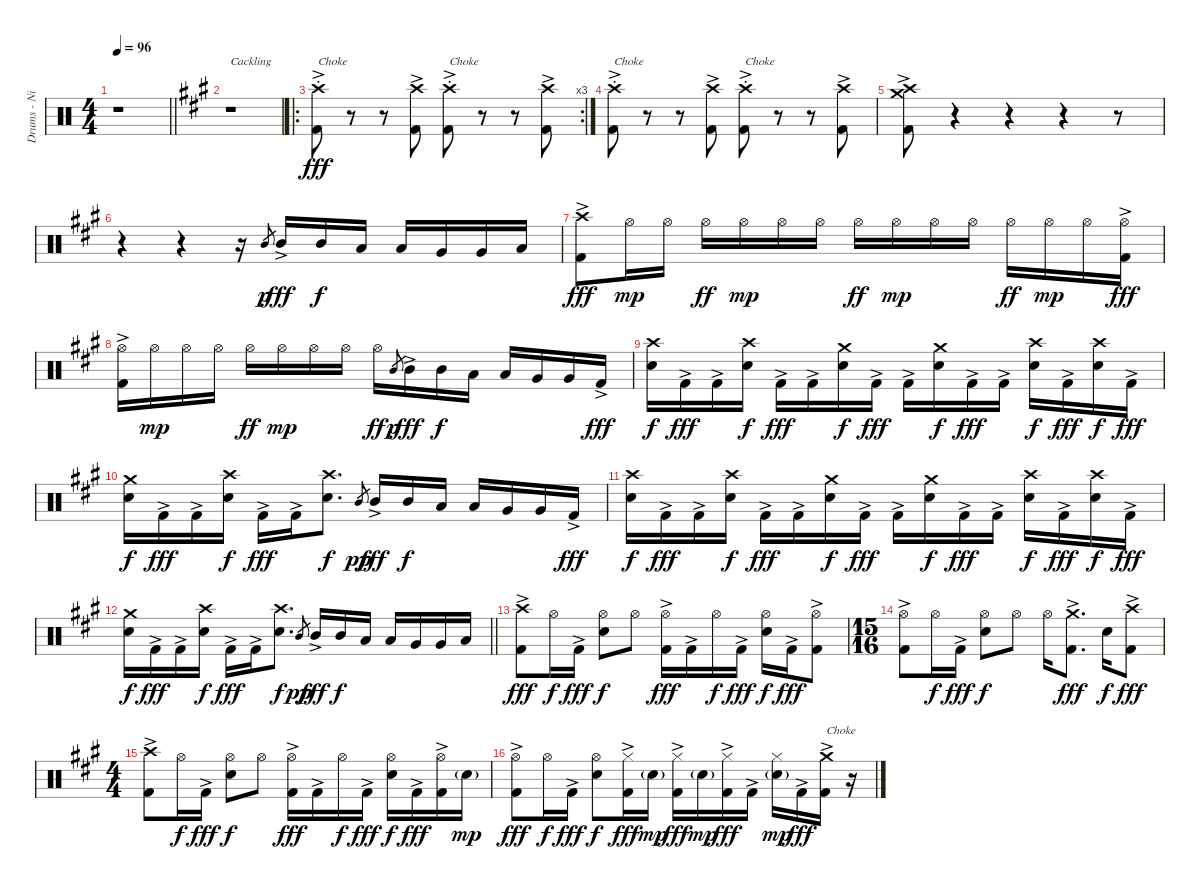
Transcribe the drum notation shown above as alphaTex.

\track ("Drums - Nick Menza" "Drums - Ni") {instrument percussion}
\staff {score}
\articulation defaults
\ts (4 4)
\tempo 96
\clef neutral
\barLineRight lightlight
\ks c
r.1{dy fff} |
\ks f#minor
r.1{txt "Cackling"} |
\ro
\rc 3
("Crash high (hit)"{st} "Kick (hit) 2"{ac}).8{txt "Choke "} r.8 r.8 ("Crash high (hit)" "Kick (hit) 2"{ac}).8 ("Crash high (hit)"{st} "Kick (hit) 2"{ac}).8{txt "Choke"} r.8 r.8 ("Crash high (hit)" "Kick (hit) 2"{ac}).8 |
("Crash high (hit)"{st} "Kick (hit) 2"{ac}).8{txt "Choke"} r.8 r.8 ("Crash high (hit)" "Kick (hit) 2"{ac}).8 ("Crash high (hit)"{st} "Kick (hit) 2"{ac}).8{txt "Choke"} r.8 r.8 ("Crash high (hit)" "Kick (hit) 2"{ac}).8 |
("Crash high (hit)" "Crash medium (hit)" "Kick (hit) 2"{ac}).8 r.4 r.4 r.4 r.8 |
r.4 r.4 r.16 "Mid Tom (hit)".8{gr dy p} "Mid Tom (hit)"{ac}.16{dy fff} "Mid Tom (hit)".16{dy f} "Low Tom (hit)".16 "Low Tom (hit)".16 "Very Low Tom (hit)".16 "Very Low Tom (hit)".16 "Low Floor Tom (hit)".16 |
("Crash high (hit)" "Kick (hit) 2"{ac}).8{dy fff} "Hi-Hat (open)".16{dy mp} "Hi-Hat (open)".16 "Hi-Hat (open)".16{dy ff} "Hi-Hat (open)".16{dy mp} "Hi-Hat (open)".16 "Hi-Hat (open)".16 "Hi-Hat (open)".16{dy ff} "Hi-Hat (open)".16{dy mp} "Hi-Hat (open)".16 "Hi-Hat (open)".16 "Hi-Hat (open)".16{dy ff} "Hi-Hat (open)".16{dy mp} "Hi-Hat (open)".16 ("Hi-Hat (open)" "Kick (hit) 2"{ac}).16{dy fff} |
("Hi-Hat (open)" "Kick (hit) 2"{ac}).16 "Hi-Hat (open)".16{dy mp} "Hi-Hat (open)".16 "Hi-Hat (open)".16 "Hi-Hat (open)".16{dy ff} "Hi-Hat (open)".16{dy mp} "Hi-Hat (open)".16 "Hi-Hat (open)".16 "Hi-Hat (open)".16{dy ff} "Mid Tom (hit)".8{gr dy p} "Mid Tom (hit)"{ac}.16{dy fff} "Mid Tom (hit)".16{dy f} "Low Tom (hit)".16 "Low Tom (hit)".16 "Very Low Tom (hit)".16 "Very Low Tom (hit)".16 "Kick (hit) 2"{ac}.16{dy fff} |
("Crash high (hit)" "Snare (hit) 2").16{dy f} "Kick (hit) 2"{ac}.16{dy fff} "Kick (hit) 2"{ac}.16 ("Crash high (hit)" "Snare (hit) 2").16{dy f} "Kick (hit) 2"{ac}.16{dy fff} "Kick (hit) 2"{ac}.16 ("Crash medium (hit)" "Snare (hit) 2").16{dy f} "Kick (hit) 2"{ac}.16{dy fff} "Kick (hit) 2"{ac}.16 ("Crash medium (hit)" "Snare (hit) 2").16{dy f} "Kick (hit) 2"{ac}.16{dy fff} "Kick (hit) 2"{ac}.16 ("Crash high (hit)" "Snare (hit) 2").16{dy f} "Kick (hit) 2"{ac}.16{dy fff} ("Crash high (hit)" "Snare (hit) 2").16{dy f} "Kick (hit) 2"{ac}.16{dy fff} |
("Crash medium (hit)" "Snare (hit) 2").16{dy f} "Kick (hit) 2"{ac}.16{dy fff} "Kick (hit) 2"{ac}.16 ("Crash high (hit)" "Snare (hit) 2").16{dy f} "Kick (hit) 2"{ac}.16{dy fff} "Kick (hit) 2"{ac}.16 ("Crash high (hit)" "Snare (hit) 2").8{d dy f} "Mid Tom (hit)".8{gr dy pp} "Mid Tom (hit)"{ac}.16{dy fff} "Mid Tom (hit)".16{dy f} "Low Tom (hit)".16 "Low Tom (hit)".16 "Very Low Tom (hit)".16 "Very Low Tom (hit)".16 "Kick (hit) 2"{ac}.16{dy fff} |
("Crash high (hit)" "Snare (hit) 2").16{dy f} "Kick (hit) 2"{ac}.16{dy fff} "Kick (hit) 2"{ac}.16 ("Crash high (hit)" "Snare (hit) 2").16{dy f} "Kick (hit) 2"{ac}.16{dy fff} "Kick (hit) 2"{ac}.16 ("Crash medium (hit)" "Snare (hit) 2").16{dy f} "Kick (hit) 2"{ac}.16{dy fff} "Kick (hit) 2"{ac}.16 ("Crash medium (hit)" "Snare (hit) 2").16{dy f} "Kick (hit) 2"{ac}.16{dy fff} "Kick (hit) 2"{ac}.16 ("Crash high (hit)" "Snare (hit) 2").16{dy f} "Kick (hit) 2"{ac}.16{dy fff} ("Crash high (hit)" "Snare (hit) 2").16{dy f} "Kick (hit) 2"{ac}.16{dy fff} |
\barLineRight lightlight
("Crash medium (hit)" "Snare (hit) 2").16{dy f} "Kick (hit) 2"{ac}.16{dy fff} "Kick (hit) 2"{ac}.16 ("Crash high (hit)" "Snare (hit) 2").16{dy f} "Kick (hit) 2"{ac}.16{dy fff} "Kick (hit) 2"{ac}.16 ("Crash high (hit)" "Snare (hit) 2").8{d dy f} "Mid Tom (hit)".8{gr dy pp} "Mid Tom (hit)"{ac}.16{dy fff} "Mid Tom (hit)".16{dy f} "Low Tom (hit)".16 "Low Tom (hit)".16 "Very Low Tom (hit)".16 "Very Low Tom (hit)".16 "Low Floor Tom (hit)".16 |
("Crash high (hit)" "Kick (hit) 2"{ac}).8{dy fff} "Hi-Hat (open)".16{dy f} "Kick (hit) 2"{ac}.16{dy fff} ("Hi-Hat (open)" "Snare (hit) 2").8{dy f} "Hi-Hat (open)".8 ("Hi-Hat (open)" "Kick (hit) 2"{ac}).16{dy fff} "Kick (hit) 2"{ac}.16 "Hi-Hat (open)".16{dy f} "Kick (hit) 2"{ac}.16{dy fff} ("Hi-Hat (open)" "Snare (hit) 2").16{dy f} "Kick (hit) 2"{ac}.16{dy fff} ("Hi-Hat (open)" "Kick (hit) 2"{ac}).8 |
\ts (15 16)
("Hi-Hat (open)" "Kick (hit) 2"{ac}).8 "Hi-Hat (open)".16{dy f} "Kick (hit) 2"{ac}.16{dy fff} ("Hi-Hat (open)" "Snare (hit) 2").8{dy f} "Hi-Hat (open)".8 "Hi-Hat (open)".16 ("Crash medium (hit)" "Kick (hit) 2"{ac}).8{d dy fff} "Snare (hit) 2".16{dy f} ("Crash high (hit)" "Kick (hit) 2"{ac}).8{dy fff} |
\ts (4 4)
("Crash high (hit)" "Kick (hit) 2"{ac}).8 "Hi-Hat (open)".16{dy f} "Kick (hit) 2"{ac}.16{dy fff} ("Hi-Hat (open)" "Snare (hit) 2").8{dy f} "Hi-Hat (open)".8 ("Hi-Hat (open)" "Kick (hit) 2"{ac}).16{dy fff} "Kick (hit) 2"{ac}.16 "Hi-Hat (open)".16{dy f} "Kick (hit) 2"{ac}.16{dy fff} ("Hi-Hat (open)" "Snare (hit) 2").16{dy f} "Kick (hit) 2"{ac}.16{dy fff} ("Hi-Hat (open)" "Kick (hit) 2"{ac}).16 "Snare (hit) 2"{g}.16{dy mp} |
("Hi-Hat (open)" "Kick (hit) 2"{ac}).8{dy fff} "Hi-Hat (open)".16{dy f} "Kick (hit) 2"{ac}.16{dy fff} ("Hi-Hat (open)" "Snare (hit) 2").8{dy f} ("Hi-Hat (closed)" "Kick (hit) 2"{ac}).16{dy fff} "Snare (hit) 2"{g}.16{dy mp} ("Hi-Hat (closed)" "Kick (hit) 2"{ac}).16{dy fff} "Snare (hit) 2"{g}.16{dy mp} ("Hi-Hat (closed)" "Kick (hit) 2"{ac}).16{dy fff} "Kick (hit) 2"{ac}.16 ("Hi-Hat (closed)" "Snare (hit) 2"{g}).16{dy mp} "Kick (hit) 2"{ac}.16{dy fff} ("Crash medium (hit)" "Kick (hit) 2"{ac}).16{txt "Choke"} r.16
